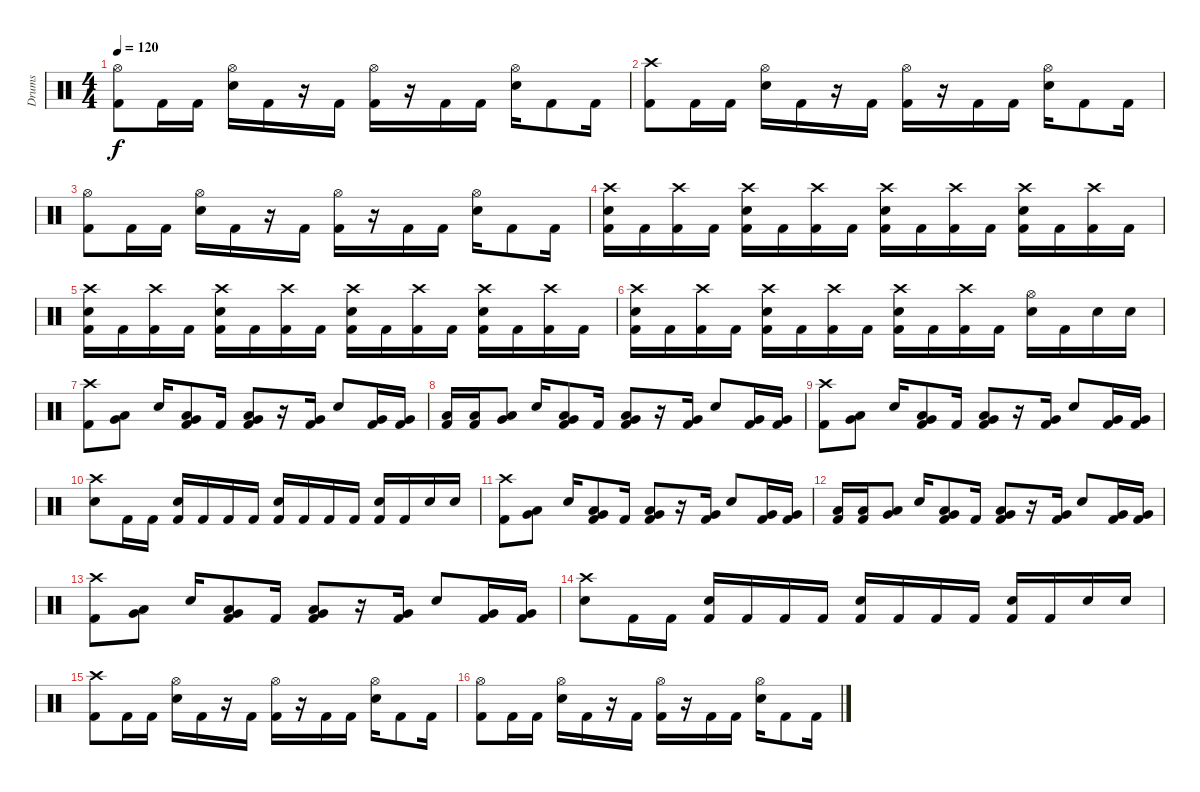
\track ("Drums" "Drums") {instrument percussion}
\staff {score}
\articulation defaults
\ts (4 4)
\tempo 120
\clef neutral
\ks c
("Hi-Hat (open)" "Kick (hit) 2").8{dy f} "Kick (hit) 2".16 "Kick (hit) 2".16 ("Hi-Hat (open)" "Electric Snare (hit)").16 "Kick (hit) 2".16 r.16 "Kick (hit) 2".16 ("Hi-Hat (open)" "Kick (hit) 2").16 r.16 "Kick (hit) 2".16 "Kick (hit) 2".16 ("Hi-Hat (open)" "Electric Snare (hit)").16 "Kick (hit) 2".8 "Kick (hit) 2".16 |
("Crash high (hit)" "Kick (hit) 2").8 "Kick (hit) 2".16 "Kick (hit) 2".16 ("Hi-Hat (open)" "Electric Snare (hit)").16 "Kick (hit) 2".16 r.16 "Kick (hit) 2".16 ("Hi-Hat (open)" "Kick (hit) 2").16 r.16 "Kick (hit) 2".16 "Kick (hit) 2".16 ("Hi-Hat (open)" "Electric Snare (hit)").16 "Kick (hit) 2".8 "Kick (hit) 2".16 |
("Hi-Hat (open)" "Kick (hit) 2").8 "Kick (hit) 2".16 "Kick (hit) 2".16 ("Hi-Hat (open)" "Electric Snare (hit)").16 "Kick (hit) 2".16 r.16 "Kick (hit) 2".16 ("Hi-Hat (open)" "Kick (hit) 2").16 r.16 "Kick (hit) 2".16 "Kick (hit) 2".16 ("Hi-Hat (open)" "Electric Snare (hit)").16 "Kick (hit) 2".8 "Kick (hit) 2".16 |
("Crash high (hit)" "Electric Snare (hit)" "Kick (hit) 2").16 "Kick (hit) 2".16 ("Crash high (hit)" "Kick (hit) 2").16 "Kick (hit) 2".16 ("Crash high (hit)" "Electric Snare (hit)" "Kick (hit) 2").16 "Kick (hit) 2".16 ("Crash high (hit)" "Kick (hit) 2").16 "Kick (hit) 2".16 ("Crash high (hit)" "Electric Snare (hit)" "Kick (hit) 2").16 "Kick (hit) 2".16 ("Crash high (hit)" "Kick (hit) 2").16 "Kick (hit) 2".16 ("Crash high (hit)" "Electric Snare (hit)" "Kick (hit) 2").16 "Kick (hit) 2".16 ("Crash high (hit)" "Kick (hit) 2").16 "Kick (hit) 2".16 |
("Crash high (hit)" "Electric Snare (hit)" "Kick (hit) 2").16 "Kick (hit) 2".16 ("Crash high (hit)" "Kick (hit) 2").16 "Kick (hit) 2".16 ("Crash high (hit)" "Electric Snare (hit)" "Kick (hit) 2").16 "Kick (hit) 2".16 ("Crash high (hit)" "Kick (hit) 2").16 "Kick (hit) 2".16 ("Crash high (hit)" "Electric Snare (hit)" "Kick (hit) 2").16 "Kick (hit) 2".16 ("Crash high (hit)" "Kick (hit) 2").16 "Kick (hit) 2".16 ("Crash high (hit)" "Electric Snare (hit)" "Kick (hit) 2").16 "Kick (hit) 2".16 ("Crash high (hit)" "Kick (hit) 2").16 "Kick (hit) 2".16 |
("Crash high (hit)" "Electric Snare (hit)" "Kick (hit) 2").16 "Kick (hit) 2".16 ("Crash high (hit)" "Kick (hit) 2").16 "Kick (hit) 2".16 ("Crash high (hit)" "Electric Snare (hit)" "Kick (hit) 2").16 "Kick (hit) 2".16 ("Crash high (hit)" "Kick (hit) 2").16 "Kick (hit) 2".16 ("Crash high (hit)" "Electric Snare (hit)" "Kick (hit) 2").16 "Kick (hit) 2".16 ("Crash high (hit)" "Kick (hit) 2").16 "Kick (hit) 2".16 ("Hi-Hat (open)" "Electric Snare (hit)").16 "Kick (hit) 2".16 "Electric Snare (hit)".16 "Electric Snare (hit)".16 |
("Crash high (hit)" "Kick (hit) 2").8 ("Very Low Tom (hit)" "Low Floor Tom (hit)").8 "Electric Snare (hit)".16 ("Low Floor Tom (hit)" "Very Low Tom (hit)" "Kick (hit) 2").8 "Kick (hit) 2".16 ("Low Floor Tom (hit)" "Very Low Tom (hit)" "Kick (hit) 2").8 r.16 ("Very Low Tom (hit)" "Kick (hit) 2").16 "Electric Snare (hit)".8 ("Very Low Tom (hit)" "Kick (hit) 2").16 ("Very Low Tom (hit)" "Kick (hit) 2").16 |
("Low Tom (hit)" "Kick (hit) 2").16 ("Low Tom (hit)" "Kick (hit) 2").16 ("Very Low Tom (hit)" "Low Floor Tom (hit)").8 "Electric Snare (hit)".16 ("Low Floor Tom (hit)" "Very Low Tom (hit)" "Kick (hit) 2").8 "Kick (hit) 2".16 ("Low Floor Tom (hit)" "Very Low Tom (hit)" "Kick (hit) 2").8 r.16 ("Very Low Tom (hit)" "Kick (hit) 2").16 "Electric Snare (hit)".8 ("Very Low Tom (hit)" "Kick (hit) 2").16 ("Very Low Tom (hit)" "Kick (hit) 2").16 |
("Crash high (hit)" "Kick (hit) 2").8 ("Very Low Tom (hit)" "Low Floor Tom (hit)").8 "Electric Snare (hit)".16 ("Low Floor Tom (hit)" "Very Low Tom (hit)" "Kick (hit) 2").8 "Kick (hit) 2".16 ("Low Floor Tom (hit)" "Very Low Tom (hit)" "Kick (hit) 2").8 r.16 ("Very Low Tom (hit)" "Kick (hit) 2").16 "Electric Snare (hit)".8 ("Very Low Tom (hit)" "Kick (hit) 2").16 ("Very Low Tom (hit)" "Kick (hit) 2").16 |
("Crash high (hit)" "Electric Snare (hit)").8 "Kick (hit) 2".16 "Kick (hit) 2".16 ("Electric Snare (hit)" "Kick (hit) 2").16 "Kick (hit) 2".16 "Kick (hit) 2".16 "Kick (hit) 2".16 ("Electric Snare (hit)" "Kick (hit) 2").16 "Kick (hit) 2".16 "Kick (hit) 2".16 "Kick (hit) 2".16 ("Electric Snare (hit)" "Kick (hit) 2").16 "Kick (hit) 2".16 "Electric Snare (hit)".16 "Electric Snare (hit)".16 |
("Crash high (hit)" "Kick (hit) 2").8 ("Very Low Tom (hit)" "Low Floor Tom (hit)").8 "Electric Snare (hit)".16 ("Low Floor Tom (hit)" "Very Low Tom (hit)" "Kick (hit) 2").8 "Kick (hit) 2".16 ("Low Floor Tom (hit)" "Very Low Tom (hit)" "Kick (hit) 2").8 r.16 ("Very Low Tom (hit)" "Kick (hit) 2").16 "Electric Snare (hit)".8 ("Very Low Tom (hit)" "Kick (hit) 2").16 ("Very Low Tom (hit)" "Kick (hit) 2").16 |
("Low Tom (hit)" "Kick (hit) 2").16 ("Low Tom (hit)" "Kick (hit) 2").16 ("Very Low Tom (hit)" "Low Floor Tom (hit)").8 "Electric Snare (hit)".16 ("Low Floor Tom (hit)" "Very Low Tom (hit)" "Kick (hit) 2").8 "Kick (hit) 2".16 ("Low Floor Tom (hit)" "Very Low Tom (hit)" "Kick (hit) 2").8 r.16 ("Very Low Tom (hit)" "Kick (hit) 2").16 "Electric Snare (hit)".8 ("Very Low Tom (hit)" "Kick (hit) 2").16 ("Very Low Tom (hit)" "Kick (hit) 2").16 |
("Crash high (hit)" "Kick (hit) 2").8 ("Very Low Tom (hit)" "Low Floor Tom (hit)").8 "Electric Snare (hit)".16 ("Low Floor Tom (hit)" "Very Low Tom (hit)" "Kick (hit) 2").8 "Kick (hit) 2".16 ("Low Floor Tom (hit)" "Very Low Tom (hit)" "Kick (hit) 2").8 r.16 ("Very Low Tom (hit)" "Kick (hit) 2").16 "Electric Snare (hit)".8 ("Very Low Tom (hit)" "Kick (hit) 2").16 ("Very Low Tom (hit)" "Kick (hit) 2").16 |
("Crash high (hit)" "Electric Snare (hit)").8 "Kick (hit) 2".16 "Kick (hit) 2".16 ("Electric Snare (hit)" "Kick (hit) 2").16 "Kick (hit) 2".16 "Kick (hit) 2".16 "Kick (hit) 2".16 ("Electric Snare (hit)" "Kick (hit) 2").16 "Kick (hit) 2".16 "Kick (hit) 2".16 "Kick (hit) 2".16 ("Electric Snare (hit)" "Kick (hit) 2").16 "Kick (hit) 2".16 "Electric Snare (hit)".16 "Electric Snare (hit)".16 |
("Crash high (hit)" "Kick (hit) 2").8 "Kick (hit) 2".16 "Kick (hit) 2".16 ("Hi-Hat (open)" "Electric Snare (hit)").16 "Kick (hit) 2".16 r.16 "Kick (hit) 2".16 ("Hi-Hat (open)" "Kick (hit) 2").16 r.16 "Kick (hit) 2".16 "Kick (hit) 2".16 ("Hi-Hat (open)" "Electric Snare (hit)").16 "Kick (hit) 2".8 "Kick (hit) 2".16 |
("Hi-Hat (open)" "Kick (hit) 2").8 "Kick (hit) 2".16 "Kick (hit) 2".16 ("Hi-Hat (open)" "Electric Snare (hit)").16 "Kick (hit) 2".16 r.16 "Kick (hit) 2".16 ("Hi-Hat (open)" "Kick (hit) 2").16 r.16 "Kick (hit) 2".16 "Kick (hit) 2".16 ("Hi-Hat (open)" "Electric Snare (hit)").16 "Kick (hit) 2".8 "Kick (hit) 2".16
